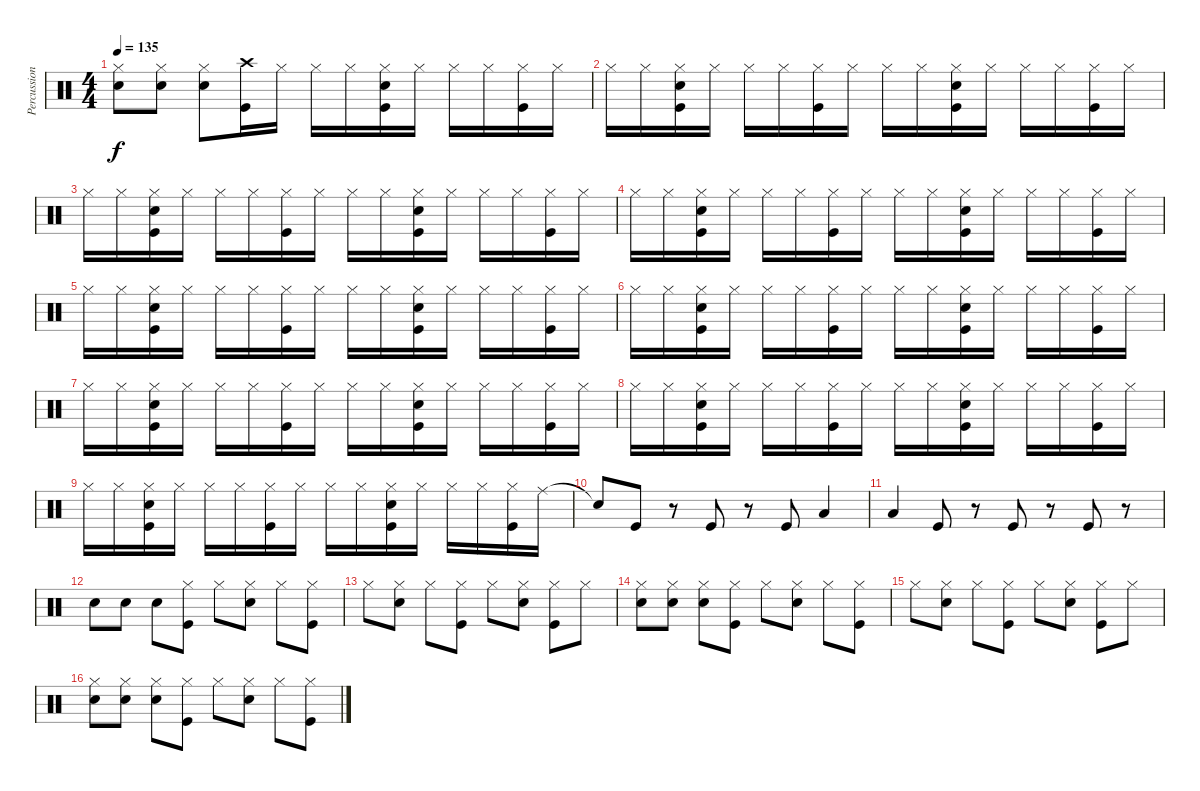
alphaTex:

\track ("Percussion" "Percussion") {instrument percussion}
\staff {score}
\articulation defaults
\ts (4 4)
\tempo 135
\clef neutral
\ks c
("Hi-Hat (closed)" "Snare (hit) 2").8{dy f} ("Hi-Hat (closed)" "Snare (hit) 2").8 ("Hi-Hat (closed)" "Snare (hit) 2").8 ("Crash high (hit)" "Kick (hit)").16 "Hi-Hat (closed)".16 "Hi-Hat (closed)".16 "Hi-Hat (closed)".16 ("Hi-Hat (closed)" "Snare (hit) 2" "Kick (hit)").16 "Hi-Hat (closed)".16 "Hi-Hat (closed)".16 "Hi-Hat (closed)".16 ("Hi-Hat (closed)" "Kick (hit)").16 "Hi-Hat (closed)".16 |
"Hi-Hat (closed)".16 "Hi-Hat (closed)".16 ("Hi-Hat (closed)" "Snare (hit) 2" "Kick (hit)").16 "Hi-Hat (closed)".16 "Hi-Hat (closed)".16 "Hi-Hat (closed)".16 ("Hi-Hat (closed)" "Kick (hit)").16 "Hi-Hat (closed)".16 "Hi-Hat (closed)".16 "Hi-Hat (closed)".16 ("Hi-Hat (closed)" "Snare (hit) 2" "Kick (hit)").16 "Hi-Hat (closed)".16 "Hi-Hat (closed)".16 "Hi-Hat (closed)".16 ("Hi-Hat (closed)" "Kick (hit)").16 "Hi-Hat (closed)".16 |
"Hi-Hat (closed)".16 "Hi-Hat (closed)".16 ("Hi-Hat (closed)" "Snare (hit) 2" "Kick (hit)").16 "Hi-Hat (closed)".16 "Hi-Hat (closed)".16 "Hi-Hat (closed)".16 ("Hi-Hat (closed)" "Kick (hit)").16 "Hi-Hat (closed)".16 "Hi-Hat (closed)".16 "Hi-Hat (closed)".16 ("Hi-Hat (closed)" "Snare (hit) 2" "Kick (hit)").16 "Hi-Hat (closed)".16 "Hi-Hat (closed)".16 "Hi-Hat (closed)".16 ("Hi-Hat (closed)" "Kick (hit)").16 "Hi-Hat (closed)".16 |
"Hi-Hat (closed)".16 "Hi-Hat (closed)".16 ("Hi-Hat (closed)" "Snare (hit) 2" "Kick (hit)").16 "Hi-Hat (closed)".16 "Hi-Hat (closed)".16 "Hi-Hat (closed)".16 ("Hi-Hat (closed)" "Kick (hit)").16 "Hi-Hat (closed)".16 "Hi-Hat (closed)".16 "Hi-Hat (closed)".16 ("Hi-Hat (closed)" "Snare (hit) 2" "Kick (hit)").16 "Hi-Hat (closed)".16 "Hi-Hat (closed)".16 "Hi-Hat (closed)".16 ("Hi-Hat (closed)" "Kick (hit)").16 "Hi-Hat (closed)".16 |
"Hi-Hat (closed)".16 "Hi-Hat (closed)".16 ("Hi-Hat (closed)" "Snare (hit) 2" "Kick (hit)").16 "Hi-Hat (closed)".16 "Hi-Hat (closed)".16 "Hi-Hat (closed)".16 ("Hi-Hat (closed)" "Kick (hit)").16 "Hi-Hat (closed)".16 "Hi-Hat (closed)".16 "Hi-Hat (closed)".16 ("Hi-Hat (closed)" "Snare (hit) 2" "Kick (hit)").16 "Hi-Hat (closed)".16 "Hi-Hat (closed)".16 "Hi-Hat (closed)".16 ("Hi-Hat (closed)" "Kick (hit)").16 "Hi-Hat (closed)".16 |
"Hi-Hat (closed)".16 "Hi-Hat (closed)".16 ("Hi-Hat (closed)" "Snare (hit) 2" "Kick (hit)").16 "Hi-Hat (closed)".16 "Hi-Hat (closed)".16 "Hi-Hat (closed)".16 ("Hi-Hat (closed)" "Kick (hit)").16 "Hi-Hat (closed)".16 "Hi-Hat (closed)".16 "Hi-Hat (closed)".16 ("Hi-Hat (closed)" "Snare (hit) 2" "Kick (hit)").16 "Hi-Hat (closed)".16 "Hi-Hat (closed)".16 "Hi-Hat (closed)".16 ("Hi-Hat (closed)" "Kick (hit)").16 "Hi-Hat (closed)".16 |
"Hi-Hat (closed)".16 "Hi-Hat (closed)".16 ("Hi-Hat (closed)" "Snare (hit) 2" "Kick (hit)").16 "Hi-Hat (closed)".16 "Hi-Hat (closed)".16 "Hi-Hat (closed)".16 ("Hi-Hat (closed)" "Kick (hit)").16 "Hi-Hat (closed)".16 "Hi-Hat (closed)".16 "Hi-Hat (closed)".16 ("Hi-Hat (closed)" "Snare (hit) 2" "Kick (hit)").16 "Hi-Hat (closed)".16 "Hi-Hat (closed)".16 "Hi-Hat (closed)".16 ("Hi-Hat (closed)" "Kick (hit)").16 "Hi-Hat (closed)".16 |
"Hi-Hat (closed)".16 "Hi-Hat (closed)".16 ("Hi-Hat (closed)" "Snare (hit) 2" "Kick (hit)").16 "Hi-Hat (closed)".16 "Hi-Hat (closed)".16 "Hi-Hat (closed)".16 ("Hi-Hat (closed)" "Kick (hit)").16 "Hi-Hat (closed)".16 "Hi-Hat (closed)".16 "Hi-Hat (closed)".16 ("Hi-Hat (closed)" "Snare (hit) 2" "Kick (hit)").16 "Hi-Hat (closed)".16 "Hi-Hat (closed)".16 "Hi-Hat (closed)".16 ("Hi-Hat (closed)" "Kick (hit)").16 "Hi-Hat (closed)".16 |
"Hi-Hat (closed)".16 "Hi-Hat (closed)".16 ("Hi-Hat (closed)" "Snare (hit) 2" "Kick (hit)").16 "Hi-Hat (closed)".16 "Hi-Hat (closed)".16 "Hi-Hat (closed)".16 ("Hi-Hat (closed)" "Kick (hit)").16 "Hi-Hat (closed)".16 "Hi-Hat (closed)".16 "Hi-Hat (closed)".16 ("Hi-Hat (closed)" "Snare (hit) 2" "Kick (hit)").16 "Hi-Hat (closed)".16 "Hi-Hat (closed)".16 "Hi-Hat (closed)".16 ("Hi-Hat (closed)" "Kick (hit)").16 "Ride (middle)".16 |
"Snare (hit)"{t}.8 "Kick (hit)".8 r.8 "Kick (hit)".8 r.8 "Kick (hit)".8 "Low Floor Tom (hit)".4 |
"Low Floor Tom (hit)".4 "Kick (hit)".8 r.8 "Kick (hit)".8 r.8 "Kick (hit)".8 r.8 |
"Snare (hit) 2".8 "Snare (hit) 2".8 "Snare (hit) 2".8 ("Hi-Hat (closed)" "Kick (hit)").8 "Hi-Hat (closed)".8 ("Hi-Hat (closed)" "Snare (hit) 2").8 "Hi-Hat (closed)".8 ("Hi-Hat (closed)" "Kick (hit)").8 |
"Hi-Hat (closed)".8 ("Hi-Hat (closed)" "Snare (hit) 2").8 "Hi-Hat (closed)".8 ("Hi-Hat (closed)" "Kick (hit)").8 "Hi-Hat (closed)".8 ("Hi-Hat (closed)" "Snare (hit) 2").8 ("Hi-Hat (closed)" "Kick (hit)").8 "Hi-Hat (closed)".8 |
("Hi-Hat (closed)" "Snare (hit) 2").8 ("Hi-Hat (closed)" "Snare (hit) 2").8 ("Hi-Hat (closed)" "Snare (hit) 2").8 ("Hi-Hat (closed)" "Kick (hit)").8 "Hi-Hat (closed)".8 ("Hi-Hat (closed)" "Snare (hit) 2").8 "Hi-Hat (closed)".8 ("Hi-Hat (closed)" "Kick (hit)").8 |
"Hi-Hat (closed)".8 ("Hi-Hat (closed)" "Snare (hit) 2").8 "Hi-Hat (closed)".8 ("Hi-Hat (closed)" "Kick (hit)").8 "Hi-Hat (closed)".8 ("Hi-Hat (closed)" "Snare (hit) 2").8 ("Hi-Hat (closed)" "Kick (hit)").8 "Hi-Hat (closed)".8 |
("Hi-Hat (closed)" "Snare (hit) 2").8 ("Hi-Hat (closed)" "Snare (hit) 2").8 ("Hi-Hat (closed)" "Snare (hit) 2").8 ("Hi-Hat (closed)" "Kick (hit)").8 "Hi-Hat (closed)".8 ("Hi-Hat (closed)" "Snare (hit) 2").8 "Hi-Hat (closed)".8 ("Hi-Hat (closed)" "Kick (hit)").8
